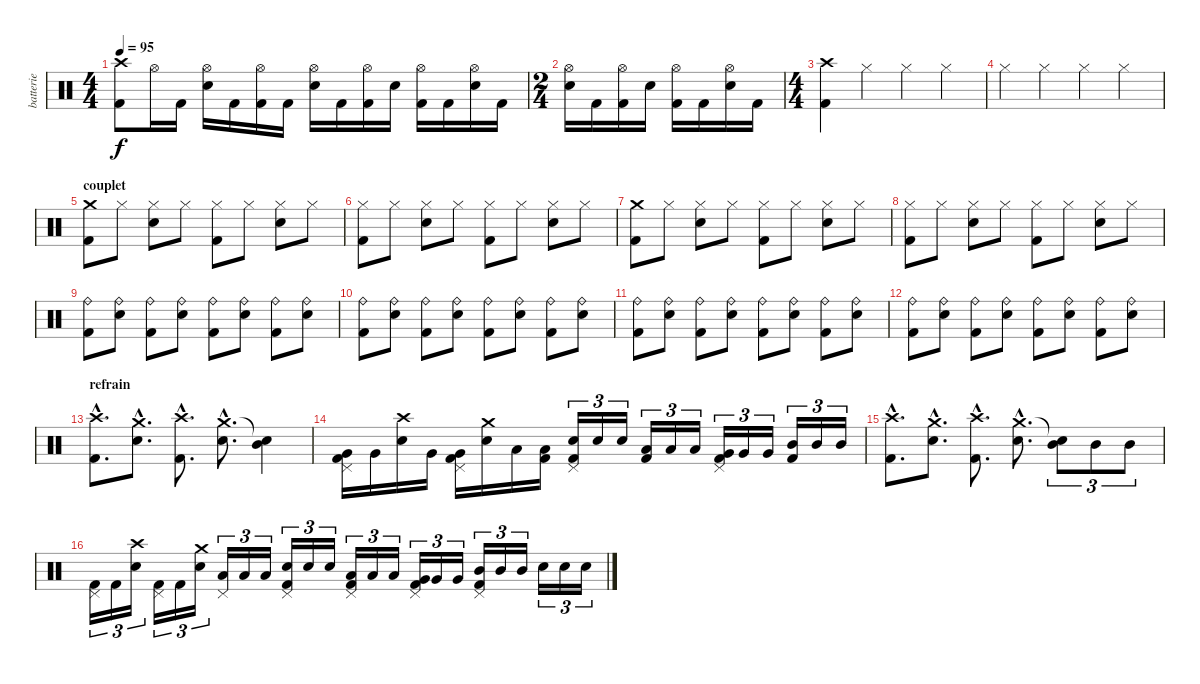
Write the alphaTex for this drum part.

\track ("batterie" "batterie") {instrument percussion}
\staff {score}
\articulation defaults
\ts (4 4)
\tempo 95
\clef neutral
\ks c
("Crash high (hit)" "Kick (hit) 2").8{dy f} "Hi-Hat (open)".16 "Kick (hit) 2".16 ("Electric Snare (hit)" "Hi-Hat (open)").16 "Kick (hit) 2".16 ("Kick (hit) 2" "Hi-Hat (open)").16 "Kick (hit) 2".16 ("Electric Snare (hit)" "Hi-Hat (open)").16 "Kick (hit) 2".16 ("Kick (hit) 2" "Hi-Hat (open)").16 "Electric Snare (hit)".16 ("Kick (hit) 2" "Hi-Hat (open)").16 "Kick (hit) 2".16 ("Electric Snare (hit)" "Hi-Hat (open)").16 "Kick (hit) 2".16 |
\ts (2 4)
("Electric Snare (hit)" "Hi-Hat (open)").16 "Kick (hit) 2".16 ("Kick (hit) 2" "Hi-Hat (open)").16 "Electric Snare (hit)".16 ("Kick (hit) 2" "Hi-Hat (open)").16 "Kick (hit) 2".16 ("Electric Snare (hit)" "Hi-Hat (open)").16 "Kick (hit) 2".16 |
\ts (4 4)
("Crash high (hit)" "Kick (hit) 2").4 "Hi-Hat (closed)".4 "Hi-Hat (closed)".4 "Hi-Hat (closed)".4 |
"Hi-Hat (closed)".4 "Hi-Hat (closed)".4 "Hi-Hat (closed)".4 "Hi-Hat (closed)".4 |
\section ("" "couplet")
("Crash medium (hit)" "Kick (hit) 2").8 "Hi-Hat (closed)".8 ("Electric Snare (hit)" "Hi-Hat (closed)").8 "Hi-Hat (closed)".8 ("Kick (hit) 2" "Hi-Hat (closed)").8 "Hi-Hat (closed)".8 ("Electric Snare (hit)" "Hi-Hat (closed)").8 "Hi-Hat (closed)".8 |
("Kick (hit) 2" "Hi-Hat (closed)").8 "Hi-Hat (closed)".8 ("Electric Snare (hit)" "Hi-Hat (closed)").8 "Hi-Hat (closed)".8 ("Kick (hit) 2" "Hi-Hat (closed)").8 "Hi-Hat (closed)".8 ("Electric Snare (hit)" "Hi-Hat (closed)").8 "Hi-Hat (closed)".8 |
("Crash medium (hit)" "Kick (hit) 2").8 "Hi-Hat (closed)".8 ("Electric Snare (hit)" "Hi-Hat (closed)").8 "Hi-Hat (closed)".8 ("Kick (hit) 2" "Hi-Hat (closed)").8 "Hi-Hat (closed)".8 ("Electric Snare (hit)" "Hi-Hat (closed)").8 "Hi-Hat (closed)".8 |
("Kick (hit) 2" "Hi-Hat (closed)").8 "Hi-Hat (closed)".8 ("Electric Snare (hit)" "Hi-Hat (closed)").8 "Hi-Hat (closed)".8 ("Kick (hit) 2" "Hi-Hat (closed)").8 "Hi-Hat (closed)".8 ("Electric Snare (hit)" "Hi-Hat (closed)").8 "Hi-Hat (closed)".8 |
("Kick (hit) 2" "Ride (bell)").8 ("Electric Snare (hit)" "Ride (bell)").8 ("Kick (hit) 2" "Ride (bell)").8 ("Electric Snare (hit)" "Ride (bell)").8 ("Kick (hit) 2" "Ride (bell)").8 ("Electric Snare (hit)" "Ride (bell)").8 ("Kick (hit) 2" "Ride (bell)").8 ("Electric Snare (hit)" "Ride (bell)").8 |
("Kick (hit) 2" "Ride (bell)").8 ("Electric Snare (hit)" "Ride (bell)").8 ("Kick (hit) 2" "Ride (bell)").8 ("Electric Snare (hit)" "Ride (bell)").8 ("Kick (hit) 2" "Ride (bell)").8 ("Electric Snare (hit)" "Ride (bell)").8 ("Kick (hit) 2" "Ride (bell)").8 ("Electric Snare (hit)" "Ride (bell)").8 |
("Kick (hit) 2" "Ride (bell)").8 ("Electric Snare (hit)" "Ride (bell)").8 ("Kick (hit) 2" "Ride (bell)").8 ("Electric Snare (hit)" "Ride (bell)").8 ("Kick (hit) 2" "Ride (bell)").8 ("Electric Snare (hit)" "Ride (bell)").8 ("Kick (hit) 2" "Ride (bell)").8 ("Electric Snare (hit)" "Ride (bell)").8 |
("Kick (hit) 2" "Ride (bell)").8 ("Electric Snare (hit)" "Ride (bell)").8 ("Kick (hit) 2" "Ride (bell)").8 ("Electric Snare (hit)" "Ride (bell)").8 ("Kick (hit) 2" "Ride (bell)").8 ("Electric Snare (hit)" "Ride (bell)").8 ("Kick (hit) 2" "Ride (bell)").8 ("Electric Snare (hit)" "Ride (bell)").8 |
\section ("" "refrain")
("Crash high (hit)"{hac} "Kick (hit) 2"{hac}).8{d} ("Crash medium (hit)"{hac} "Electric Snare (hit)"{hac}).8{d} ("Crash high (hit)"{hac} "Kick (hit) 2"{hac}).8{d} ("Crash medium (hit)"{hac} "Electric Snare (hit)"{hac}).8{d} ("Snare (hit)"{t} "Mid Tom (hit)").4 |
("Very Low Tom (hit)" "Kick (hit) 2" "Pedal Hi-Hat (hit)").16 "Very Low Tom (hit)".16 ("Crash high (hit)" "Electric Snare (hit)").16 "Very Low Tom (hit)".16 ("Very Low Tom (hit)" "Kick (hit) 2" "Pedal Hi-Hat (hit)").16 ("Crash medium (hit)" "Electric Snare (hit)").16 "Low Tom (hit)".16 ("Low Tom (hit)" "Kick (hit) 2").16 ("Electric Snare (hit)" "Kick (hit) 2" "Pedal Hi-Hat (hit)").16{tu (3 2)} "Electric Snare (hit)".16{tu (3 2)} "Electric Snare (hit)".16{tu (3 2)} ("Low Tom (hit)" "Kick (hit) 2").16{tu (3 2)} "Low Tom (hit)".16{tu (3 2)} "Low Tom (hit)".16{tu (3 2)} ("Very Low Tom (hit)" "Kick (hit) 2" "Pedal Hi-Hat (hit)").16{tu (3 2)} "Very Low Tom (hit)".16{tu (3 2)} "Very Low Tom (hit)".16{tu (3 2)} ("Mid Tom (hit)" "Kick (hit) 2").16{tu (3 2)} "Mid Tom (hit)".16{tu (3 2)} "Mid Tom (hit)".16{tu (3 2)} |
("Crash high (hit)"{hac} "Kick (hit) 2"{hac}).8{d} ("Crash medium (hit)"{hac} "Electric Snare (hit)"{hac}).8{d} ("Crash high (hit)"{hac} "Kick (hit) 2"{hac}).8{d} ("Crash medium (hit)"{hac} "Electric Snare (hit)"{hac}).8{d} ("Snare (hit)"{t} "Mid Tom (hit)").8{tu (3 2)} "Mid Tom (hit)".8{tu (3 2)} "Mid Tom (hit)".8{tu (3 2)} |
("Kick (hit) 2" "Pedal Hi-Hat (hit)").16{tu (3 2)} "Kick (hit) 2".16{tu (3 2)} ("Crash high (hit)" "Electric Snare (hit)").16{tu (3 2)} ("Kick (hit) 2" "Pedal Hi-Hat (hit)").16{tu (3 2)} "Kick (hit) 2".16{tu (3 2)} ("Crash medium (hit)" "Electric Snare (hit)").16{tu (3 2)} ("Low Tom (hit)" "Pedal Hi-Hat (hit)").16{tu (3 2)} "Low Tom (hit)".16{tu (3 2)} "Low Tom (hit)".16{tu (3 2)} ("Electric Snare (hit)" "Kick (hit) 2" "Pedal Hi-Hat (hit)").16{tu (3 2)} "Electric Snare (hit)".16{tu (3 2)} "Electric Snare (hit)".16{tu (3 2)} ("Low Tom (hit)" "Kick (hit) 2" "Pedal Hi-Hat (hit)").16{tu (3 2)} "Low Tom (hit)".16{tu (3 2)} "Low Tom (hit)".16{tu (3 2)} ("Very Low Tom (hit)" "Kick (hit) 2" "Pedal Hi-Hat (hit)").16{tu (3 2)} "Very Low Tom (hit)".16{tu (3 2)} "Very Low Tom (hit)".16{tu (3 2)} ("Mid Tom (hit)" "Kick (hit) 2" "Pedal Hi-Hat (hit)").16{tu (3 2)} "Mid Tom (hit)".16{tu (3 2)} "Mid Tom (hit)".16{tu (3 2)} "Electric Snare (hit)".16{tu (3 2)} "Electric Snare (hit)".16{tu (3 2)} "Electric Snare (hit)".16{tu (3 2)}
